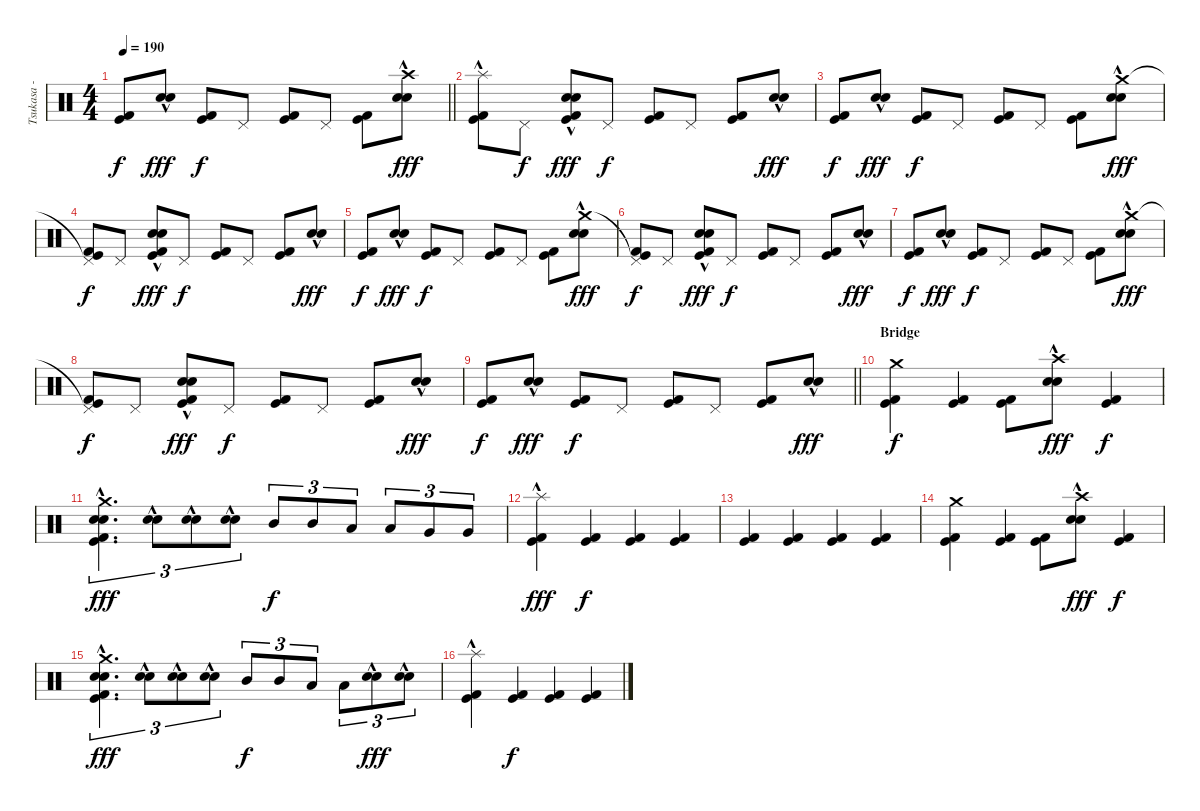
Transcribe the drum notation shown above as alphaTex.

\track ("Tsukasa - Drums" "Tsukasa - ") {instrument percussion}
\staff {score}
\articulation defaults
\ts (4 4)
\tempo 190
\clef neutral
\barLineRight lightlight
\ks c
("Kick (hit)" "Kick (hit) 2").8{dy f} ("Electric Snare (hit)"{hac} "Snare (hit) 2").8{dy fff} ("Kick (hit)" "Kick (hit) 2").8{dy f} "Pedal Hi-Hat (hit)".8 ("Kick (hit)" "Kick (hit) 2").8 "Pedal Hi-Hat (hit)".8 ("Kick (hit)" "Kick (hit) 2").8 ("Crash high (hit)" "Electric Snare (hit)"{hac} "Snare (hit) 2").8{dy fff} |
\section ("" "")
("Splash (hit)"{hac} "Kick (hit)" "Kick (hit) 2").8 "Pedal Hi-Hat (hit)".8{dy f} ("Electric Snare (hit)"{hac} "Snare (hit) 2" "Kick (hit)" "Kick (hit) 2").8{dy fff} "Pedal Hi-Hat (hit)".8{dy f} ("Kick (hit)" "Kick (hit) 2").8 "Pedal Hi-Hat (hit)".8 ("Kick (hit)" "Kick (hit) 2").8 ("Electric Snare (hit)"{hac} "Snare (hit) 2").8{dy fff} |
("Kick (hit)" "Kick (hit) 2").8{dy f} ("Electric Snare (hit)"{hac} "Snare (hit) 2").8{dy fff} ("Kick (hit)" "Kick (hit) 2").8{dy f} "Pedal Hi-Hat (hit)".8 ("Kick (hit)" "Kick (hit) 2").8 "Pedal Hi-Hat (hit)".8 ("Kick (hit)" "Kick (hit) 2").8 ("Crash medium (hit)" "Electric Snare (hit)"{hac} "Snare (hit) 2").8{dy fff} |
("Pedal Hi-Hat (hit)"{t} "Kick (hit)" "Kick (hit) 2").8{dy f} "Pedal Hi-Hat (hit)".8 ("Electric Snare (hit)"{hac} "Snare (hit) 2" "Kick (hit)" "Kick (hit) 2").8{dy fff} "Pedal Hi-Hat (hit)".8{dy f} ("Kick (hit)" "Kick (hit) 2").8 "Pedal Hi-Hat (hit)".8 ("Kick (hit)" "Kick (hit) 2").8 ("Electric Snare (hit)"{hac} "Snare (hit) 2").8{dy fff} |
("Kick (hit)" "Kick (hit) 2").8{dy f} ("Electric Snare (hit)"{hac} "Snare (hit) 2").8{dy fff} ("Kick (hit)" "Kick (hit) 2").8{dy f} "Pedal Hi-Hat (hit)".8 ("Kick (hit)" "Kick (hit) 2").8 "Pedal Hi-Hat (hit)".8 ("Kick (hit)" "Kick (hit) 2").8 ("Crash medium (hit)" "Electric Snare (hit)"{hac} "Snare (hit) 2").8{dy fff} |
("Pedal Hi-Hat (hit)"{t} "Kick (hit)" "Kick (hit) 2").8{dy f} "Pedal Hi-Hat (hit)".8 ("Electric Snare (hit)"{hac} "Snare (hit) 2" "Kick (hit)" "Kick (hit) 2").8{dy fff} "Pedal Hi-Hat (hit)".8{dy f} ("Kick (hit)" "Kick (hit) 2").8 "Pedal Hi-Hat (hit)".8 ("Kick (hit)" "Kick (hit) 2").8 ("Electric Snare (hit)"{hac} "Snare (hit) 2").8{dy fff} |
("Kick (hit)" "Kick (hit) 2").8{dy f} ("Electric Snare (hit)"{hac} "Snare (hit) 2").8{dy fff} ("Kick (hit)" "Kick (hit) 2").8{dy f} "Pedal Hi-Hat (hit)".8 ("Kick (hit)" "Kick (hit) 2").8 "Pedal Hi-Hat (hit)".8 ("Kick (hit)" "Kick (hit) 2").8 ("Crash medium (hit)" "Electric Snare (hit)"{hac} "Snare (hit) 2").8{dy fff} |
("Pedal Hi-Hat (hit)"{t} "Kick (hit)" "Kick (hit) 2").8{dy f} "Pedal Hi-Hat (hit)".8 ("Electric Snare (hit)"{hac} "Snare (hit) 2" "Kick (hit)" "Kick (hit) 2").8{dy fff} "Pedal Hi-Hat (hit)".8{dy f} ("Kick (hit)" "Kick (hit) 2").8 "Pedal Hi-Hat (hit)".8 ("Kick (hit)" "Kick (hit) 2").8 ("Electric Snare (hit)"{hac} "Snare (hit) 2").8{dy fff} |
\barLineRight lightlight
("Kick (hit)" "Kick (hit) 2").8{dy f} ("Electric Snare (hit)"{hac} "Snare (hit) 2").8{dy fff} ("Kick (hit)" "Kick (hit) 2").8{dy f} "Pedal Hi-Hat (hit)".8 ("Kick (hit)" "Kick (hit) 2").8 "Pedal Hi-Hat (hit)".8 ("Kick (hit)" "Kick (hit) 2").8 ("Electric Snare (hit)"{hac} "Snare (hit) 2").8{dy fff} |
\section ("" "Bridge")
("Crash medium (hit)" "Kick (hit)" "Kick (hit) 2").4{dy f} ("Kick (hit)" "Kick (hit) 2").4 ("Kick (hit)" "Kick (hit) 2").8 ("Crash high (hit)" "Electric Snare (hit)"{hac} "Snare (hit) 2").8{dy fff} ("Kick (hit)" "Kick (hit) 2").4{dy f} |
("Crash medium (hit)" "Electric Snare (hit)"{hac} "Snare (hit) 2" "Kick (hit)" "Kick (hit) 2").4{d tu (3 2) dy fff} ("Electric Snare (hit)"{hac} "Snare (hit) 2").8{tu (3 2)} ("Electric Snare (hit)"{hac} "Snare (hit) 2").8{tu (3 2)} ("Electric Snare (hit)"{hac} "Snare (hit) 2").8{tu (3 2)} "Mid Tom (hit)".8{tu (3 2) dy f} "Mid Tom (hit)".8{tu (3 2)} "Low Tom (hit)".8{tu (3 2)} "Low Tom (hit)".8{tu (3 2)} "Very Low Tom (hit)".8{tu (3 2)} "Very Low Tom (hit)".8{tu (3 2)} |
("Splash (hit)"{hac} "Kick (hit)" "Kick (hit) 2").4{dy fff} ("Kick (hit)" "Kick (hit) 2").4{dy f} ("Kick (hit)" "Kick (hit) 2").4 ("Kick (hit)" "Kick (hit) 2").4 |
("Kick (hit)" "Kick (hit) 2").4 ("Kick (hit)" "Kick (hit) 2").4 ("Kick (hit)" "Kick (hit) 2").4 ("Kick (hit)" "Kick (hit) 2").4 |
("Crash medium (hit)" "Kick (hit)" "Kick (hit) 2").4 ("Kick (hit)" "Kick (hit) 2").4 ("Kick (hit)" "Kick (hit) 2").8 ("Crash high (hit)" "Electric Snare (hit)"{hac} "Snare (hit) 2").8{dy fff} ("Kick (hit)" "Kick (hit) 2").4{dy f} |
("Crash medium (hit)" "Electric Snare (hit)"{hac} "Snare (hit) 2" "Kick (hit)" "Kick (hit) 2").4{d tu (3 2) dy fff} ("Electric Snare (hit)"{hac} "Snare (hit) 2").8{tu (3 2)} ("Electric Snare (hit)"{hac} "Snare (hit) 2").8{tu (3 2)} ("Electric Snare (hit)"{hac} "Snare (hit) 2").8{tu (3 2)} "Mid Tom (hit)".8{tu (3 2) dy f} "Mid Tom (hit)".8{tu (3 2)} "Low Tom (hit)".8{tu (3 2)} "Low Tom (hit)".8{tu (3 2)} ("Electric Snare (hit)"{hac} "Snare (hit) 2").8{tu (3 2) dy fff} ("Electric Snare (hit)"{hac} "Snare (hit) 2").8{tu (3 2)} |
("Splash (hit)"{hac} "Kick (hit)" "Kick (hit) 2").4 ("Kick (hit)" "Kick (hit) 2").4{dy f} ("Kick (hit)" "Kick (hit) 2").4 ("Kick (hit)" "Kick (hit) 2").4
